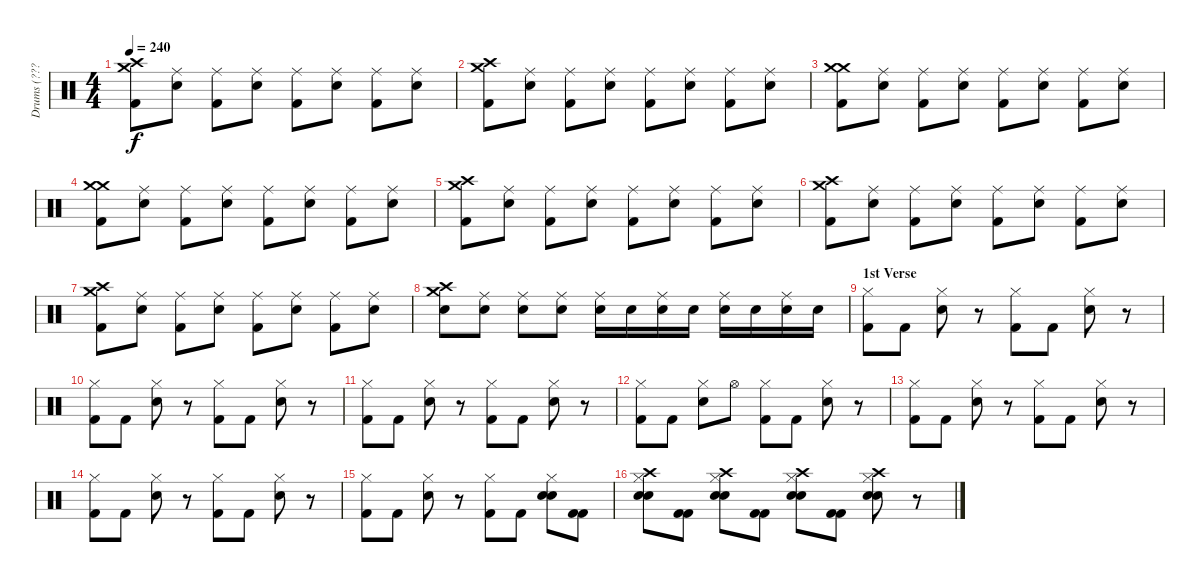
\track ("Drums (????)" "Drums (???") {instrument percussion}
\staff {score}
\articulation defaults
\ts (4 4)
\tempo 240
\clef neutral
\ks c
("Crash medium (hit)" "Crash high (hit)" "Kick (hit) 2").8{dy f} ("Ride (middle)" "Snare (hit) 2").8 ("Ride (middle)" "Kick (hit) 2").8 ("Ride (middle)" "Snare (hit) 2").8 ("Ride (middle)" "Kick (hit) 2").8 ("Ride (middle)" "Snare (hit) 2").8 ("Ride (middle)" "Kick (hit) 2").8 ("Ride (middle)" "Snare (hit) 2").8 |
("Crash medium (hit)" "Crash high (hit)" "Kick (hit) 2").8 ("Ride (middle)" "Snare (hit) 2").8 ("Ride (middle)" "Kick (hit) 2").8 ("Ride (middle)" "Snare (hit) 2").8 ("Ride (middle)" "Kick (hit) 2").8 ("Ride (middle)" "Snare (hit) 2").8 ("Ride (middle)" "Kick (hit) 2").8 ("Ride (middle)" "Snare (hit) 2").8 |
("Crash medium (hit)" "Crash medium (hit)" "Kick (hit) 2").8 ("Ride (middle)" "Snare (hit) 2").8 ("Ride (middle)" "Kick (hit) 2").8 ("Ride (middle)" "Snare (hit) 2").8 ("Ride (middle)" "Kick (hit) 2").8 ("Ride (middle)" "Snare (hit) 2").8 ("Ride (middle)" "Kick (hit) 2").8 ("Ride (middle)" "Snare (hit) 2").8 |
("Crash medium (hit)" "Crash medium (hit)" "Kick (hit) 2").8 ("Ride (middle)" "Snare (hit) 2").8 ("Ride (middle)" "Kick (hit) 2").8 ("Ride (middle)" "Snare (hit) 2").8 ("Ride (middle)" "Kick (hit) 2").8 ("Ride (middle)" "Snare (hit) 2").8 ("Ride (middle)" "Kick (hit) 2").8 ("Ride (middle)" "Snare (hit) 2").8 |
("Crash medium (hit)" "Crash high (hit)" "Kick (hit) 2").8 ("Ride (middle)" "Snare (hit) 2").8 ("Ride (middle)" "Kick (hit) 2").8 ("Ride (middle)" "Snare (hit) 2").8 ("Ride (middle)" "Kick (hit) 2").8 ("Ride (middle)" "Snare (hit) 2").8 ("Ride (middle)" "Kick (hit) 2").8 ("Ride (middle)" "Snare (hit) 2").8 |
("Crash medium (hit)" "Crash high (hit)" "Kick (hit) 2").8 ("Ride (middle)" "Snare (hit) 2").8 ("Ride (middle)" "Kick (hit) 2").8 ("Ride (middle)" "Snare (hit) 2").8 ("Ride (middle)" "Kick (hit) 2").8 ("Ride (middle)" "Snare (hit) 2").8 ("Ride (middle)" "Kick (hit) 2").8 ("Ride (middle)" "Snare (hit) 2").8 |
("Crash medium (hit)" "Crash high (hit)" "Kick (hit) 2").8 ("Ride (middle)" "Snare (hit) 2").8 ("Ride (middle)" "Kick (hit) 2").8 ("Ride (middle)" "Snare (hit) 2").8 ("Ride (middle)" "Kick (hit) 2").8 ("Ride (middle)" "Snare (hit) 2").8 ("Ride (middle)" "Kick (hit) 2").8 ("Ride (middle)" "Snare (hit) 2").8 |
("Crash medium (hit)" "Crash high (hit)" "Snare (hit) 2").8 ("Ride (middle)" "Snare (hit) 2").8 ("Ride (middle)" "Snare (hit) 2").8 ("Ride (middle)" "Snare (hit) 2").8 ("Ride (middle)" "Snare (hit) 2").16 "Snare (hit) 2".16 ("Ride (middle)" "Snare (hit) 2").16 "Snare (hit) 2".16 ("Ride (middle)" "Snare (hit) 2").16 "Snare (hit) 2".16 ("Ride (middle)" "Snare (hit) 2").16 "Snare (hit) 2".16 |
\section ("" "1st Verse")
("Hi-Hat (closed)" "Kick (hit) 2").8 "Kick (hit) 2".8 ("Hi-Hat (closed)" "Snare (hit) 2").8 r.8 ("Hi-Hat (closed)" "Kick (hit) 2").8 "Kick (hit) 2".8 ("Hi-Hat (closed)" "Snare (hit) 2").8 r.8 |
("Hi-Hat (closed)" "Kick (hit) 2").8 "Kick (hit) 2".8 ("Hi-Hat (closed)" "Snare (hit) 2").8 r.8 ("Hi-Hat (closed)" "Kick (hit) 2").8 "Kick (hit) 2".8 ("Hi-Hat (closed)" "Snare (hit) 2").8 r.8 |
("Hi-Hat (closed)" "Kick (hit) 2").8 "Kick (hit) 2".8 ("Hi-Hat (closed)" "Snare (hit) 2").8 r.8 ("Hi-Hat (closed)" "Kick (hit) 2").8 "Kick (hit) 2".8 ("Hi-Hat (closed)" "Snare (hit) 2").8 r.8 |
("Hi-Hat (closed)" "Kick (hit) 2").8 "Kick (hit) 2".8 ("Hi-Hat (closed)" "Snare (hit) 2").8 "Hi-Hat (open)".8 ("Hi-Hat (closed)" "Kick (hit) 2").8 "Kick (hit) 2".8 ("Hi-Hat (closed)" "Snare (hit) 2").8 r.8 |
("Hi-Hat (closed)" "Kick (hit) 2").8 "Kick (hit) 2".8 ("Hi-Hat (closed)" "Snare (hit) 2").8 r.8 ("Hi-Hat (closed)" "Kick (hit) 2").8 "Kick (hit) 2".8 ("Hi-Hat (closed)" "Snare (hit) 2").8 r.8 |
("Hi-Hat (closed)" "Kick (hit) 2").8 "Kick (hit) 2".8 ("Hi-Hat (closed)" "Snare (hit) 2").8 r.8 ("Hi-Hat (closed)" "Kick (hit) 2").8 "Kick (hit) 2".8 ("Hi-Hat (closed)" "Snare (hit) 2").8 r.8 |
("Hi-Hat (closed)" "Kick (hit) 2").8 "Kick (hit) 2".8 ("Hi-Hat (closed)" "Snare (hit) 2").8 r.8 ("Hi-Hat (closed)" "Kick (hit) 2").8 "Kick (hit) 2".8 ("Hi-Hat (closed)" "Snare (hit) 2" "Snare (hit) 2").8 ("Kick (hit) 2" "Kick (hit) 2").8 |
("Hi-Hat (closed)" "Snare (hit) 2" "Snare (hit) 2" "Crash high (hit)").8 ("Kick (hit) 2" "Kick (hit) 2").8 ("Hi-Hat (closed)" "Snare (hit) 2" "Snare (hit) 2" "Crash high (hit)").8 ("Kick (hit) 2" "Kick (hit) 2").8 ("Hi-Hat (closed)" "Snare (hit) 2" "Snare (hit) 2" "Crash high (hit)").8 ("Kick (hit) 2" "Kick (hit) 2").8 ("Hi-Hat (closed)" "Snare (hit) 2" "Snare (hit) 2" "Crash high (hit)").8 r.8
